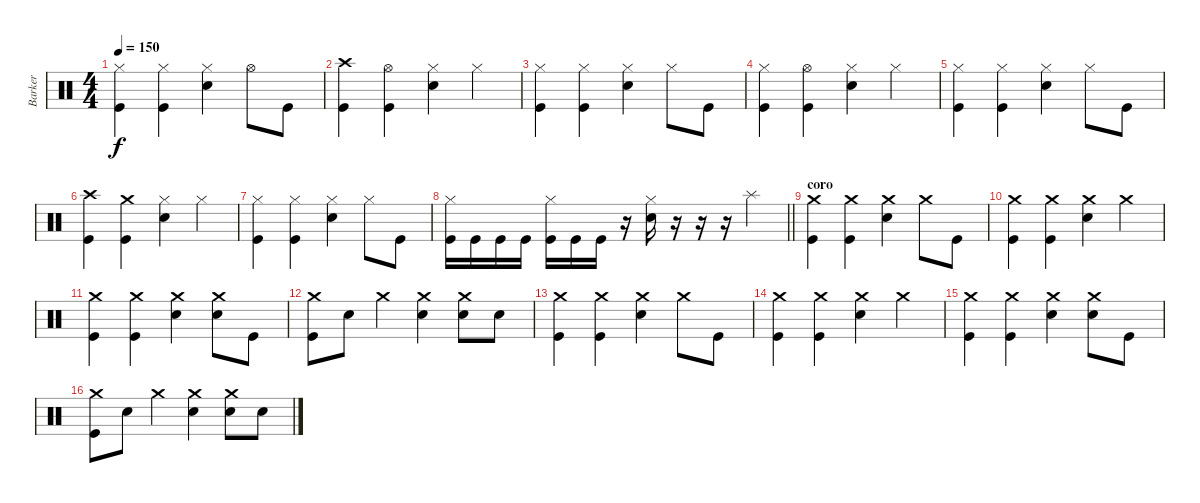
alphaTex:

\track ("Barker" "Barker") {instrument percussion}
\staff {score}
\articulation defaults
\ts (4 4)
\tempo 150
\clef neutral
\ks c
("Hi-Hat (closed)" "Kick (hit)").4{dy f} ("Hi-Hat (closed)" "Kick (hit)").4 ("Hi-Hat (closed)" "Electric Snare (hit)").4 "Hi-Hat (open)".8 "Kick (hit)".8 |
("Crash high (hit)" "Kick (hit)").4 ("Hi-Hat (open)" "Kick (hit)").4 ("Hi-Hat (closed)" "Electric Snare (hit)").4 "Hi-Hat (closed)".4 |
("Hi-Hat (closed)" "Kick (hit)").4 ("Hi-Hat (closed)" "Kick (hit)").4 ("Hi-Hat (closed)" "Electric Snare (hit)").4 "Hi-Hat (closed)".8 "Kick (hit)".8 |
("Hi-Hat (closed)" "Kick (hit)").4 ("Hi-Hat (open)" "Kick (hit)").4 ("Hi-Hat (closed)" "Electric Snare (hit)").4 "Hi-Hat (closed)".4 |
("Hi-Hat (closed)" "Kick (hit)").4 ("Hi-Hat (closed)" "Kick (hit)").4 ("Hi-Hat (closed)" "Electric Snare (hit)").4 "Hi-Hat (closed)".8 "Kick (hit)".8 |
("Crash high (hit)" "Kick (hit)").4 ("Crash medium (hit)" "Kick (hit)").4 ("Hi-Hat (closed)" "Electric Snare (hit)").4 "Hi-Hat (closed)".4 |
("Hi-Hat (closed)" "Kick (hit)").4 ("Hi-Hat (closed)" "Kick (hit)").4 ("Hi-Hat (closed)" "Electric Snare (hit)").4 "Hi-Hat (closed)".8 "Kick (hit)".8 |
\barLineRight lightlight
("Hi-Hat (closed)" "Kick (hit)").16 "Kick (hit)".16 "Kick (hit)".16 "Kick (hit)".16 ("Hi-Hat (closed)" "Kick (hit)").16 "Kick (hit)".16 "Kick (hit)".16 r.16 ("Hi-Hat (closed)" "Electric Snare (hit)").16 r.16 r.16 r.16 "Splash (hit)".4 |
\section ("" "coro")
("Crash medium (hit)" "Kick (hit)").4 ("Crash medium (hit)" "Kick (hit)").4 ("Crash medium (hit)" "Electric Snare (hit)").4 "Crash medium (hit)".8 "Kick (hit)".8 |
("Crash medium (hit)" "Kick (hit)").4 ("Crash medium (hit)" "Kick (hit)").4 ("Crash medium (hit)" "Electric Snare (hit)").4 "Crash medium (hit)".4 |
("Crash medium (hit)" "Kick (hit)").4 ("Crash medium (hit)" "Kick (hit)").4 ("Crash medium (hit)" "Electric Snare (hit)").4 ("Crash medium (hit)" "Electric Snare (hit)").8 "Kick (hit)".8 |
("Crash medium (hit)" "Kick (hit)").8 "Electric Snare (hit)".8 "Crash medium (hit)".4 ("Crash medium (hit)" "Electric Snare (hit)").4 ("Electric Snare (hit)" "Crash medium (hit)").8 "Electric Snare (hit)".8 |
("Crash medium (hit)" "Kick (hit)").4 ("Crash medium (hit)" "Kick (hit)").4 ("Crash medium (hit)" "Electric Snare (hit)").4 "Crash medium (hit)".8 "Kick (hit)".8 |
("Crash medium (hit)" "Kick (hit)").4 ("Crash medium (hit)" "Kick (hit)").4 ("Crash medium (hit)" "Electric Snare (hit)").4 "Crash medium (hit)".4 |
("Crash medium (hit)" "Kick (hit)").4 ("Crash medium (hit)" "Kick (hit)").4 ("Crash medium (hit)" "Electric Snare (hit)").4 ("Crash medium (hit)" "Electric Snare (hit)").8 "Kick (hit)".8 |
("Crash medium (hit)" "Kick (hit)").8 "Electric Snare (hit)".8 "Crash medium (hit)".4 ("Crash medium (hit)" "Electric Snare (hit)").4 ("Electric Snare (hit)" "Crash medium (hit)").8 "Electric Snare (hit)".8
